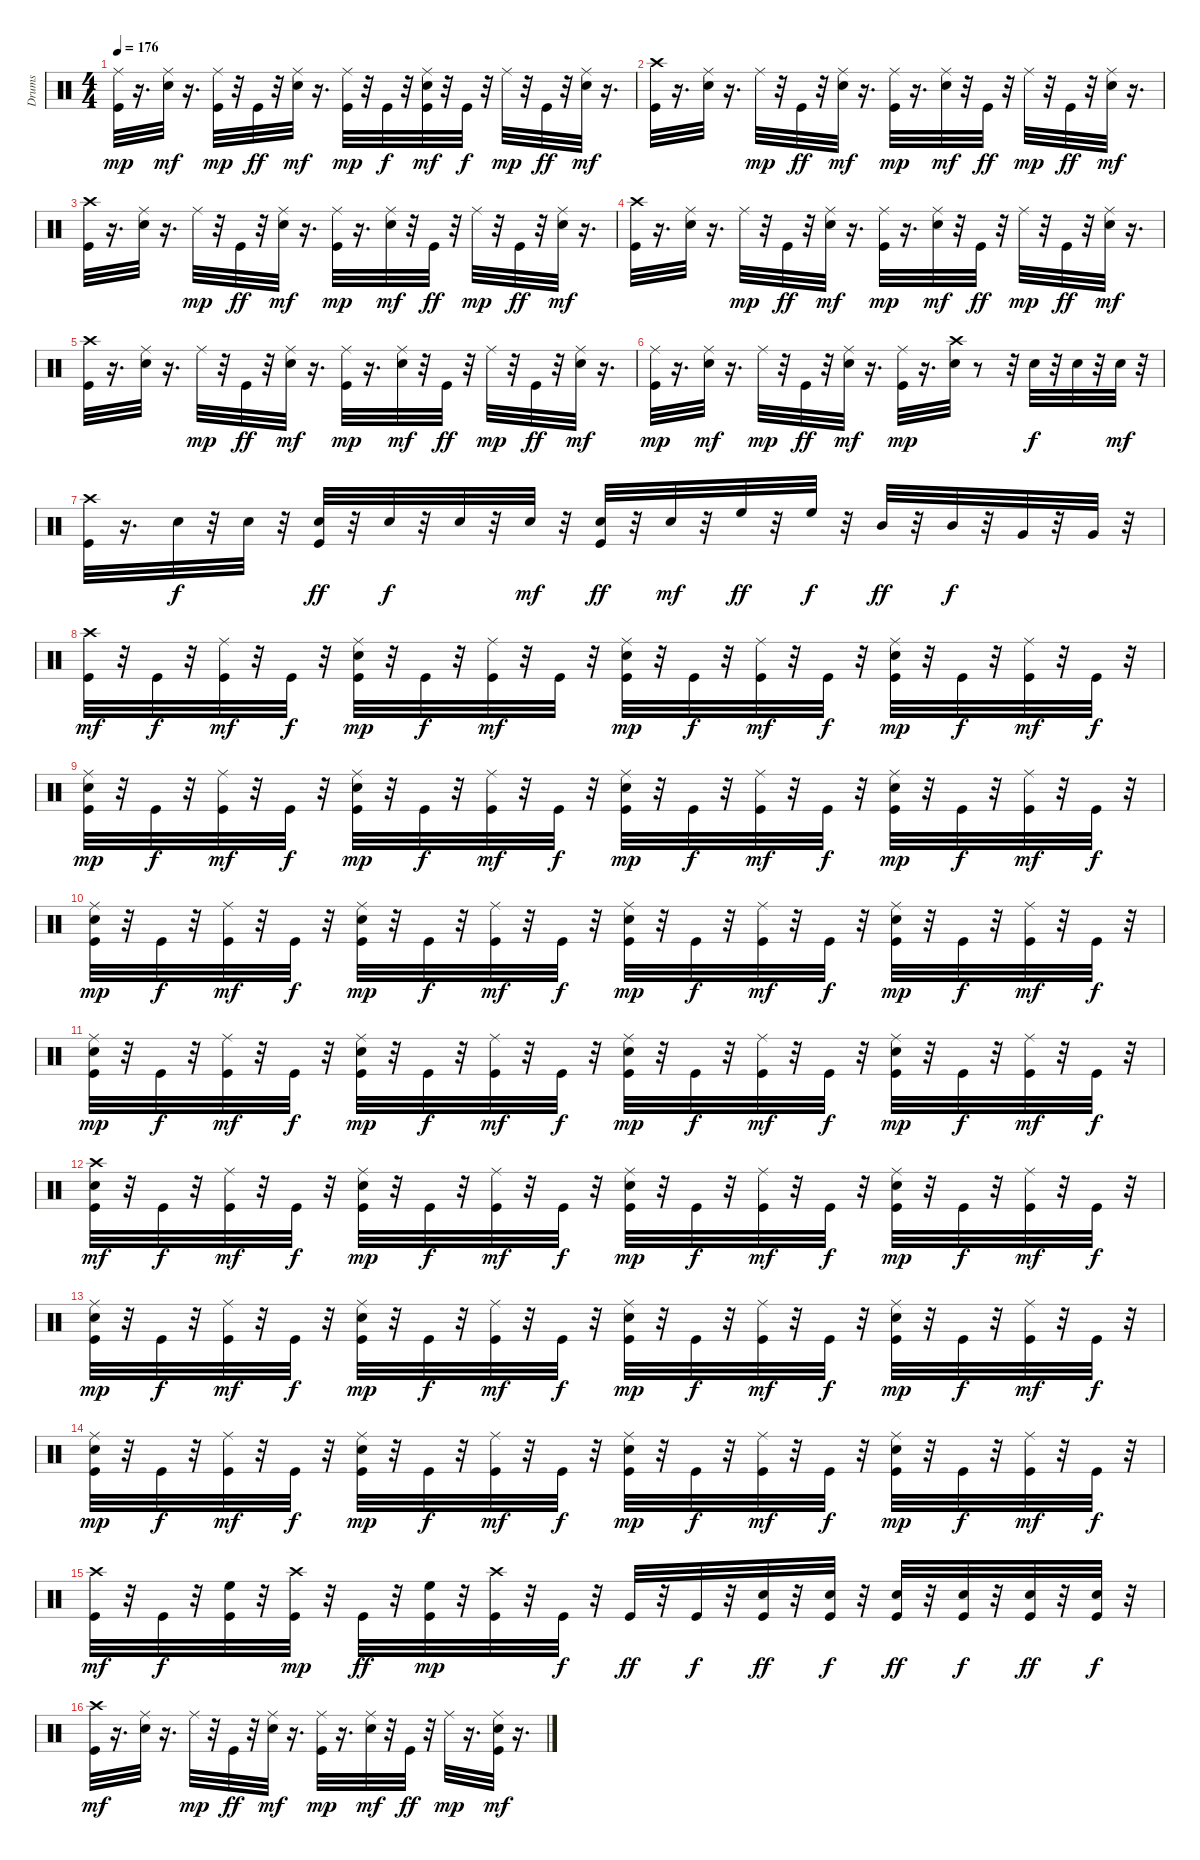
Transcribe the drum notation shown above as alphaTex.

\track ("Drums" "Drums") {instrument percussion}
\staff {score}
\articulation defaults
\ts (4 4)
\tempo 176
\clef neutral
\ks c
("Kick (hit)" "Ride (middle)").32{dy mp} r.16{d} ("Snare (hit) 2" "Ride (middle)").32{dy mf} r.16{d} ("Kick (hit)" "Ride (middle)").32{dy mp} r.32 "Kick (hit)".32{dy ff} r.32 ("Snare (hit) 2" "Ride (middle)").32{dy mf} r.16{d} ("Kick (hit)" "Ride (middle)").32{dy mp} r.32 "Kick (hit)".32{dy f} r.32 ("Kick (hit)" "Snare (hit) 2" "Ride (middle)").32{dy mf} r.32 "Kick (hit)".32{dy f} r.32 "Ride (middle)".32{dy mp} r.32 "Kick (hit)".32{dy ff} r.32 ("Snare (hit) 2" "Ride (middle)").32{dy mf} r.16{d} |
("Kick (hit)" "Crash high (hit)").32 r.16{d} ("Snare (hit) 2" "Ride (middle)").32 r.16{d} "Ride (middle)".32{dy mp} r.32 "Kick (hit)".32{dy ff} r.32 ("Snare (hit) 2" "Ride (middle)").32{dy mf} r.16{d} ("Kick (hit)" "Ride (middle)").32{dy mp} r.16{d} ("Snare (hit) 2" "Ride (middle)").32{dy mf} r.32 "Kick (hit)".32{dy ff} r.32 "Ride (middle)".32{dy mp} r.32 "Kick (hit)".32{dy ff} r.32 ("Snare (hit) 2" "Ride (middle)").32{dy mf} r.16{d} |
("Kick (hit)" "Crash high (hit)").32 r.16{d} ("Snare (hit) 2" "Ride (middle)").32 r.16{d} "Ride (middle)".32{dy mp} r.32 "Kick (hit)".32{dy ff} r.32 ("Snare (hit) 2" "Ride (middle)").32{dy mf} r.16{d} ("Kick (hit)" "Ride (middle)").32{dy mp} r.16{d} ("Snare (hit) 2" "Ride (middle)").32{dy mf} r.32 "Kick (hit)".32{dy ff} r.32 "Ride (middle)".32{dy mp} r.32 "Kick (hit)".32{dy ff} r.32 ("Snare (hit) 2" "Ride (middle)").32{dy mf} r.16{d} |
("Kick (hit)" "Crash high (hit)").32 r.16{d} ("Snare (hit) 2" "Ride (middle)").32 r.16{d} "Ride (middle)".32{dy mp} r.32 "Kick (hit)".32{dy ff} r.32 ("Snare (hit) 2" "Ride (middle)").32{dy mf} r.16{d} ("Kick (hit)" "Ride (middle)").32{dy mp} r.16{d} ("Snare (hit) 2" "Ride (middle)").32{dy mf} r.32 "Kick (hit)".32{dy ff} r.32 "Ride (middle)".32{dy mp} r.32 "Kick (hit)".32{dy ff} r.32 ("Snare (hit) 2" "Ride (middle)").32{dy mf} r.16{d} |
("Kick (hit)" "Crash high (hit)").32 r.16{d} ("Snare (hit) 2" "Ride (middle)").32 r.16{d} "Ride (middle)".32{dy mp} r.32 "Kick (hit)".32{dy ff} r.32 ("Snare (hit) 2" "Ride (middle)").32{dy mf} r.16{d} ("Kick (hit)" "Ride (middle)").32{dy mp} r.16{d} ("Snare (hit) 2" "Ride (middle)").32{dy mf} r.32 "Kick (hit)".32{dy ff} r.32 "Ride (middle)".32{dy mp} r.32 "Kick (hit)".32{dy ff} r.32 ("Snare (hit) 2" "Ride (middle)").32{dy mf} r.16{d} |
("Kick (hit)" "Ride (middle)").32{dy mp} r.16{d} ("Snare (hit) 2" "Ride (middle)").32{dy mf} r.16{d} "Ride (middle)".32{dy mp} r.32 "Kick (hit)".32{dy ff} r.32 ("Snare (hit) 2" "Ride (middle)").32{dy mf} r.16{d} ("Kick (hit)" "Ride (middle)").32{dy mp} r.16{d} ("Snare (hit) 2" "Crash high (hit)").32 r.8 r.32 "Snare (hit) 2".32{dy f} r.32 "Snare (hit) 2".32 r.32 "Snare (hit) 2".32{dy mf} r.32 |
("Kick (hit)" "Crash high (hit)").32 r.16{d} "Snare (hit) 2".32{dy f} r.32 "Snare (hit) 2".32 r.32 ("Kick (hit)" "Snare (hit) 2").32{dy ff} r.32 "Snare (hit) 2".32{dy f} r.32 "Snare (hit) 2".32 r.32 "Snare (hit) 2".32{dy mf} r.32 ("Kick (hit)" "Snare (hit) 2").32{dy ff} r.32 "Snare (hit) 2".32{dy mf} r.32 "High Floor Tom (hit)".32{dy ff} r.32 "High Floor Tom (hit)".32{dy f} r.32 "Mid Tom (hit)".32{dy ff} r.32 "Mid Tom (hit)".32{dy f} r.32 "Very Low Tom (hit)".32 r.32 "Very Low Tom (hit)".32 r.32 |
("Kick (hit)" "Crash high (hit)").32{dy mf} r.32 "Kick (hit)".32{dy f} r.32 ("Kick (hit)" "Ride (middle)").32{dy mf} r.32 "Kick (hit)".32{dy f} r.32 ("Kick (hit)" "Snare (hit) 2" "Ride (middle)").32{dy mp} r.32 "Kick (hit)".32{dy f} r.32 ("Kick (hit)" "Ride (middle)").32{dy mf} r.32 "Kick (hit)".32 r.32 ("Kick (hit)" "Snare (hit) 2" "Ride (middle)").32{dy mp} r.32 "Kick (hit)".32{dy f} r.32 ("Kick (hit)" "Ride (middle)").32{dy mf} r.32 "Kick (hit)".32{dy f} r.32 ("Kick (hit)" "Snare (hit) 2" "Ride (middle)").32{dy mp} r.32 "Kick (hit)".32{dy f} r.32 ("Kick (hit)" "Ride (middle)").32{dy mf} r.32 "Kick (hit)".32{dy f} r.32 |
("Kick (hit)" "Snare (hit) 2" "Ride (middle)").32{dy mp} r.32 "Kick (hit)".32{dy f} r.32 ("Kick (hit)" "Ride (middle)").32{dy mf} r.32 "Kick (hit)".32{dy f} r.32 ("Kick (hit)" "Snare (hit) 2" "Ride (middle)").32{dy mp} r.32 "Kick (hit)".32{dy f} r.32 ("Kick (hit)" "Ride (middle)").32{dy mf} r.32 "Kick (hit)".32{dy f} r.32 ("Kick (hit)" "Snare (hit) 2" "Ride (middle)").32{dy mp} r.32 "Kick (hit)".32{dy f} r.32 ("Kick (hit)" "Ride (middle)").32{dy mf} r.32 "Kick (hit)".32{dy f} r.32 ("Kick (hit)" "Snare (hit) 2" "Ride (middle)").32{dy mp} r.32 "Kick (hit)".32{dy f} r.32 ("Kick (hit)" "Ride (middle)").32{dy mf} r.32 "Kick (hit)".32{dy f} r.32 |
("Kick (hit)" "Snare (hit) 2" "Ride (middle)").32{dy mp} r.32 "Kick (hit)".32{dy f} r.32 ("Kick (hit)" "Ride (middle)").32{dy mf} r.32 "Kick (hit)".32{dy f} r.32 ("Kick (hit)" "Snare (hit) 2" "Ride (middle)").32{dy mp} r.32 "Kick (hit)".32{dy f} r.32 ("Kick (hit)" "Ride (middle)").32{dy mf} r.32 "Kick (hit)".32{dy f} r.32 ("Kick (hit)" "Snare (hit) 2" "Ride (middle)").32{dy mp} r.32 "Kick (hit)".32{dy f} r.32 ("Kick (hit)" "Ride (middle)").32{dy mf} r.32 "Kick (hit)".32{dy f} r.32 ("Kick (hit)" "Snare (hit) 2" "Ride (middle)").32{dy mp} r.32 "Kick (hit)".32{dy f} r.32 ("Kick (hit)" "Ride (middle)").32{dy mf} r.32 "Kick (hit)".32{dy f} r.32 |
("Kick (hit)" "Snare (hit) 2" "Ride (middle)").32{dy mp} r.32 "Kick (hit)".32{dy f} r.32 ("Kick (hit)" "Ride (middle)").32{dy mf} r.32 "Kick (hit)".32{dy f} r.32 ("Kick (hit)" "Snare (hit) 2" "Ride (middle)").32{dy mp} r.32 "Kick (hit)".32{dy f} r.32 ("Kick (hit)" "Ride (middle)").32{dy mf} r.32 "Kick (hit)".32{dy f} r.32 ("Kick (hit)" "Snare (hit) 2" "Ride (middle)").32{dy mp} r.32 "Kick (hit)".32{dy f} r.32 ("Kick (hit)" "Ride (middle)").32{dy mf} r.32 "Kick (hit)".32{dy f} r.32 ("Kick (hit)" "Snare (hit) 2" "Ride (middle)").32{dy mp} r.32 "Kick (hit)".32{dy f} r.32 ("Kick (hit)" "Ride (middle)").32{dy mf} r.32 "Kick (hit)".32{dy f} r.32 |
("Kick (hit)" "Snare (hit) 2" "Crash high (hit)").32{dy mf} r.32 "Kick (hit)".32{dy f} r.32 ("Kick (hit)" "Ride (middle)").32{dy mf} r.32 "Kick (hit)".32{dy f} r.32 ("Kick (hit)" "Snare (hit) 2" "Ride (middle)").32{dy mp} r.32 "Kick (hit)".32{dy f} r.32 ("Kick (hit)" "Ride (middle)").32{dy mf} r.32 "Kick (hit)".32{dy f} r.32 ("Kick (hit)" "Snare (hit) 2" "Ride (middle)").32{dy mp} r.32 "Kick (hit)".32{dy f} r.32 ("Kick (hit)" "Ride (middle)").32{dy mf} r.32 "Kick (hit)".32{dy f} r.32 ("Kick (hit)" "Snare (hit) 2" "Ride (middle)").32{dy mp} r.32 "Kick (hit)".32{dy f} r.32 ("Kick (hit)" "Ride (middle)").32{dy mf} r.32 "Kick (hit)".32{dy f} r.32 |
("Kick (hit)" "Snare (hit) 2" "Ride (middle)").32{dy mp} r.32 "Kick (hit)".32{dy f} r.32 ("Kick (hit)" "Ride (middle)").32{dy mf} r.32 "Kick (hit)".32{dy f} r.32 ("Kick (hit)" "Snare (hit) 2" "Ride (middle)").32{dy mp} r.32 "Kick (hit)".32{dy f} r.32 ("Kick (hit)" "Ride (middle)").32{dy mf} r.32 "Kick (hit)".32{dy f} r.32 ("Kick (hit)" "Snare (hit) 2" "Ride (middle)").32{dy mp} r.32 "Kick (hit)".32{dy f} r.32 ("Kick (hit)" "Ride (middle)").32{dy mf} r.32 "Kick (hit)".32{dy f} r.32 ("Kick (hit)" "Snare (hit) 2" "Ride (middle)").32{dy mp} r.32 "Kick (hit)".32{dy f} r.32 ("Kick (hit)" "Ride (middle)").32{dy mf} r.32 "Kick (hit)".32{dy f} r.32 |
("Kick (hit)" "Snare (hit) 2" "Ride (middle)").32{dy mp} r.32 "Kick (hit)".32{dy f} r.32 ("Kick (hit)" "Ride (middle)").32{dy mf} r.32 "Kick (hit)".32{dy f} r.32 ("Kick (hit)" "Snare (hit) 2" "Ride (middle)").32{dy mp} r.32 "Kick (hit)".32{dy f} r.32 ("Kick (hit)" "Ride (middle)").32{dy mf} r.32 "Kick (hit)".32{dy f} r.32 ("Kick (hit)" "Snare (hit) 2" "Ride (middle)").32{dy mp} r.32 "Kick (hit)".32{dy f} r.32 ("Kick (hit)" "Ride (middle)").32{dy mf} r.32 "Kick (hit)".32{dy f} r.32 ("Kick (hit)" "Snare (hit) 2" "Ride (middle)").32{dy mp} r.32 "Kick (hit)".32{dy f} r.32 ("Kick (hit)" "Ride (middle)").32{dy mf} r.32 "Kick (hit)".32{dy f} r.32 |
("Kick (hit)" "Crash high (hit)").32{dy mf} r.32 "Kick (hit)".32{dy f} r.32 ("Kick (hit)" "High Floor Tom (hit)").32 r.32 ("Kick (hit)" "Crash high (hit)").32{dy mp} r.32 "Kick (hit)".32{dy ff} r.32 ("Kick (hit)" "High Floor Tom (hit)").32{dy mp} r.32 ("Kick (hit)" "Crash high (hit)").32 r.32 "Kick (hit)".32{dy f} r.32 "Kick (hit)".32{dy ff} r.32 "Kick (hit)".32{dy f} r.32 ("Kick (hit)" "Snare (hit) 2").32{dy ff} r.32 ("Kick (hit)" "Snare (hit) 2").32{dy f} r.32 ("Kick (hit)" "Snare (hit) 2").32{dy ff} r.32 ("Kick (hit)" "Snare (hit) 2").32{dy f} r.32 ("Kick (hit)" "Snare (hit) 2").32{dy ff} r.32 ("Kick (hit)" "Snare (hit) 2").32{dy f} r.32 |
("Kick (hit)" "Crash high (hit)").32{dy mf} r.16{d} ("Snare (hit) 2" "Ride (middle)").32 r.16{d} "Ride (middle)".32{dy mp} r.32 "Kick (hit)".32{dy ff} r.32 ("Snare (hit) 2" "Ride (middle)").32{dy mf} r.16{d} ("Kick (hit)" "Ride (middle)").32{dy mp} r.16{d} ("Snare (hit) 2" "Ride (middle)").32{dy mf} r.32 "Kick (hit)".32{dy ff} r.32 "Ride (middle)".32{dy mp} r.16{d} ("Kick (hit)" "Snare (hit) 2" "Ride (middle)").32{dy mf} r.16{d}
